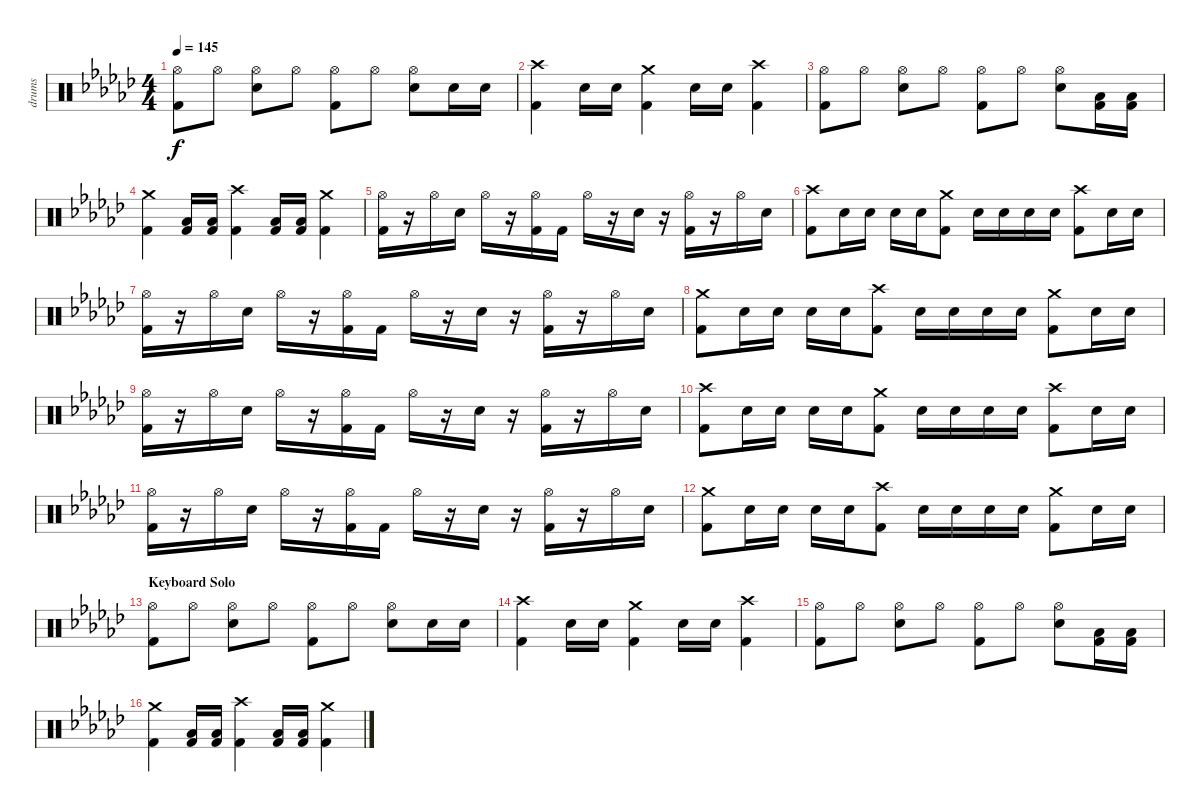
\track ("drums" "drums") {instrument percussion}
\staff {score}
\articulation defaults
\ts (4 4)
\tempo 145
\clef neutral
\ks gb
("Hi-Hat (open)" "Kick (hit) 2").8{dy f} "Hi-Hat (open)".8 ("Hi-Hat (open)" "Electric Snare (hit)").8 "Hi-Hat (open)".8 ("Hi-Hat (open)" "Kick (hit) 2").8 "Hi-Hat (open)".8 ("Hi-Hat (open)" "Electric Snare (hit)").8 "Snare (hit) 2".16 "Snare (hit) 2".16 |
("Crash high (hit)" "Kick (hit) 2").4 "Snare (hit) 2".16 "Snare (hit) 2".16 ("Crash medium (hit)" "Kick (hit) 2").4 "Snare (hit) 2".16 "Snare (hit) 2".16 ("Crash high (hit)" "Kick (hit) 2").4 |
("Hi-Hat (open)" "Kick (hit) 2").8 "Hi-Hat (open)".8 ("Hi-Hat (open)" "Electric Snare (hit)").8 "Hi-Hat (open)".8 ("Hi-Hat (open)" "Kick (hit) 2").8 "Hi-Hat (open)".8 ("Hi-Hat (open)" "Electric Snare (hit)").8 ("Low Tom (hit)" "Kick (hit) 2").16 ("Low Tom (hit)" "Kick (hit) 2").16 |
("Crash medium (hit)" "Kick (hit) 2").4 ("Low Tom (hit)" "Kick (hit) 2").16 ("Low Tom (hit)" "Kick (hit) 2").16 ("Crash high (hit)" "Kick (hit) 2").4 ("Low Tom (hit)" "Kick (hit) 2").16 ("Low Tom (hit)" "Kick (hit) 2").16 ("Crash medium (hit)" "Kick (hit) 2").4 |
("Hi-Hat (open)" "Kick (hit) 2").16 r.16 "Hi-Hat (open)".16 "Electric Snare (hit)".16 "Hi-Hat (open)".16 r.16 ("Hi-Hat (open)" "Kick (hit) 2").16 "Kick (hit) 2".16 "Hi-Hat (open)".16 r.16 "Electric Snare (hit)".16 r.16 ("Hi-Hat (open)" "Kick (hit) 2").16 r.16 "Hi-Hat (open)".16 "Electric Snare (hit)".16 |
("Crash high (hit)" "Kick (hit) 2").8 "Snare (hit) 2".16 "Snare (hit) 2".16 "Snare (hit) 2".16 "Snare (hit) 2".16 ("Crash medium (hit)" "Kick (hit) 2").8 "Snare (hit) 2".16 "Snare (hit) 2".16 "Snare (hit) 2".16 "Snare (hit) 2".16 ("Crash high (hit)" "Kick (hit) 2").8 "Snare (hit) 2".16 "Snare (hit) 2".16 |
("Hi-Hat (open)" "Kick (hit) 2").16 r.16 "Hi-Hat (open)".16 "Electric Snare (hit)".16 "Hi-Hat (open)".16 r.16 ("Hi-Hat (open)" "Kick (hit) 2").16 "Kick (hit) 2".16 "Hi-Hat (open)".16 r.16 "Electric Snare (hit)".16 r.16 ("Hi-Hat (open)" "Kick (hit) 2").16 r.16 "Hi-Hat (open)".16 "Electric Snare (hit)".16 |
("Crash medium (hit)" "Kick (hit) 2").8 "Snare (hit) 2".16 "Snare (hit) 2".16 "Snare (hit) 2".16 "Snare (hit) 2".16 ("Crash high (hit)" "Kick (hit) 2").8 "Snare (hit) 2".16 "Snare (hit) 2".16 "Snare (hit) 2".16 "Snare (hit) 2".16 ("Crash medium (hit)" "Kick (hit) 2").8 "Snare (hit) 2".16 "Snare (hit) 2".16 |
("Hi-Hat (open)" "Kick (hit) 2").16 r.16 "Hi-Hat (open)".16 "Electric Snare (hit)".16 "Hi-Hat (open)".16 r.16 ("Hi-Hat (open)" "Kick (hit) 2").16 "Kick (hit) 2".16 "Hi-Hat (open)".16 r.16 "Electric Snare (hit)".16 r.16 ("Hi-Hat (open)" "Kick (hit) 2").16 r.16 "Hi-Hat (open)".16 "Electric Snare (hit)".16 |
("Crash high (hit)" "Kick (hit) 2").8 "Snare (hit) 2".16 "Snare (hit) 2".16 "Snare (hit) 2".16 "Snare (hit) 2".16 ("Crash medium (hit)" "Kick (hit) 2").8 "Snare (hit) 2".16 "Snare (hit) 2".16 "Snare (hit) 2".16 "Snare (hit) 2".16 ("Crash high (hit)" "Kick (hit) 2").8 "Snare (hit) 2".16 "Snare (hit) 2".16 |
("Hi-Hat (open)" "Kick (hit) 2").16 r.16 "Hi-Hat (open)".16 "Electric Snare (hit)".16 "Hi-Hat (open)".16 r.16 ("Hi-Hat (open)" "Kick (hit) 2").16 "Kick (hit) 2".16 "Hi-Hat (open)".16 r.16 "Electric Snare (hit)".16 r.16 ("Hi-Hat (open)" "Kick (hit) 2").16 r.16 "Hi-Hat (open)".16 "Electric Snare (hit)".16 |
("Crash medium (hit)" "Kick (hit) 2").8 "Snare (hit) 2".16 "Snare (hit) 2".16 "Snare (hit) 2".16 "Snare (hit) 2".16 ("Crash high (hit)" "Kick (hit) 2").8 "Snare (hit) 2".16 "Snare (hit) 2".16 "Snare (hit) 2".16 "Snare (hit) 2".16 ("Crash medium (hit)" "Kick (hit) 2").8 "Snare (hit) 2".16 "Snare (hit) 2".16 |
\section ("" "Keyboard Solo")
("Hi-Hat (open)" "Kick (hit) 2").8 "Hi-Hat (open)".8 ("Hi-Hat (open)" "Electric Snare (hit)").8 "Hi-Hat (open)".8 ("Hi-Hat (open)" "Kick (hit) 2").8 "Hi-Hat (open)".8 ("Hi-Hat (open)" "Electric Snare (hit)").8 "Snare (hit) 2".16 "Snare (hit) 2".16 |
("Crash high (hit)" "Kick (hit) 2").4 "Snare (hit) 2".16 "Snare (hit) 2".16 ("Crash medium (hit)" "Kick (hit) 2").4 "Snare (hit) 2".16 "Snare (hit) 2".16 ("Crash high (hit)" "Kick (hit) 2").4 |
("Hi-Hat (open)" "Kick (hit) 2").8 "Hi-Hat (open)".8 ("Hi-Hat (open)" "Electric Snare (hit)").8 "Hi-Hat (open)".8 ("Hi-Hat (open)" "Kick (hit) 2").8 "Hi-Hat (open)".8 ("Hi-Hat (open)" "Electric Snare (hit)").8 ("Low Tom (hit)" "Kick (hit) 2").16 ("Low Tom (hit)" "Kick (hit) 2").16 |
("Crash medium (hit)" "Kick (hit) 2").4 ("Low Tom (hit)" "Kick (hit) 2").16 ("Low Tom (hit)" "Kick (hit) 2").16 ("Crash high (hit)" "Kick (hit) 2").4 ("Low Tom (hit)" "Kick (hit) 2").16 ("Low Tom (hit)" "Kick (hit) 2").16 ("Crash medium (hit)" "Kick (hit) 2").4
